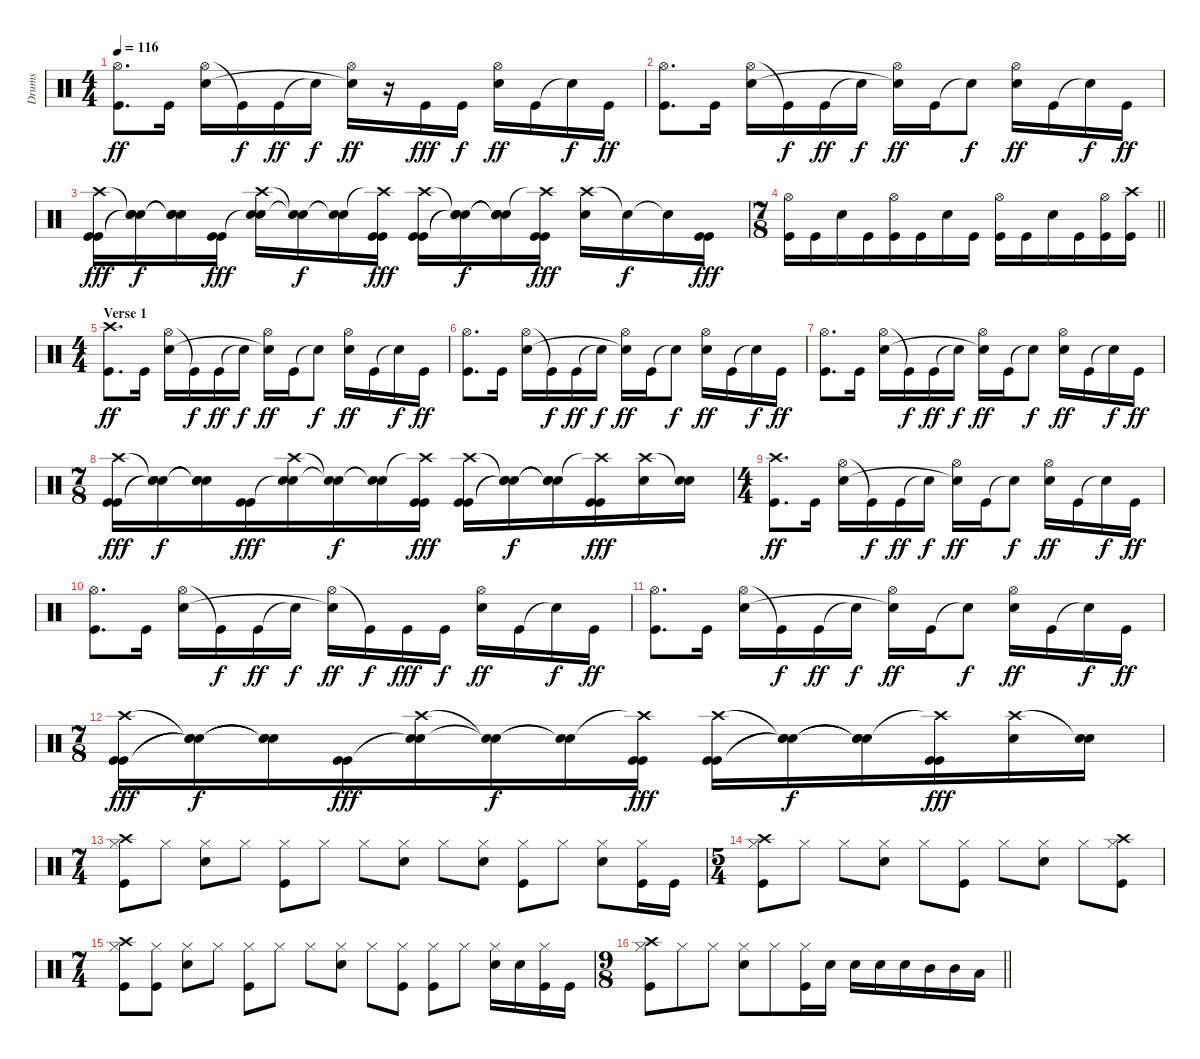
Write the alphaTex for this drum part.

\track ("Drums" "Drums") {instrument percussion}
\staff {score}
\articulation defaults
\ts (4 4)
\tempo 116
\clef neutral
\ks c
("Hi-Hat (open)" "Kick (hit)").8{d dy ff} "Kick (hit)".16 ("Hi-Hat (open)" "Electric Snare (hit)").16 "Kick (hit)"{t}.16{dy f} "Kick (hit)".16{dy ff} "Snare (hit)"{t}.16{dy f} ("Hi-Hat (open)" "Snare (hit)"{t}).16{dy ff} r.16 "Kick (hit)".16{dy fff} "Kick (hit)".16{dy f} ("Hi-Hat (open)" "Electric Snare (hit)").16{dy ff} "Kick (hit)".16 "Snare (hit)"{t}.16{dy f} "Kick (hit)".16{dy ff} |
("Hi-Hat (open)" "Kick (hit)").8{d} "Kick (hit)".16 ("Hi-Hat (open)" "Electric Snare (hit)").16 "Kick (hit)"{t}.16{dy f} "Kick (hit)".16{dy ff} "Snare (hit)"{t}.16{dy f} ("Hi-Hat (open)" "Snare (hit)"{t}).16{dy ff} "Kick (hit)".16 "Snare (hit)"{t}.8{dy f} ("Hi-Hat (open)" "Electric Snare (hit)").16{dy ff} "Kick (hit)".16 "Snare (hit)"{t}.16{dy f} "Kick (hit)".16{dy ff} |
("Crash high (hit)" "Kick (hit)" "Kick (hit)").16{dy fff} ("Snare (hit)"{t} "Snare (hit)"{t} "Snare (hit)"{t}).16{dy f} ("Snare (hit)"{t} "Snare (hit)"{t} "Snare (hit)"{t}).16 ("Kick (hit)" "Kick (hit)").16{dy fff} ("Crash high (hit)" "Snare (hit)"{t} "Electric Snare (hit)").16 ("Snare (hit)"{t} "Snare (hit)"{t}).16{dy f} ("Snare (hit)"{t} "Snare (hit)"{t}).16 ("Crash high (hit)"{t} "Kick (hit)" "Kick (hit)").16{dy fff} ("Crash high (hit)" "Kick (hit)" "Kick (hit)").16 ("Snare (hit)"{t} "Snare (hit)"{t} "Snare (hit)"{t}).16{dy f} ("Snare (hit)"{t} "Snare (hit)"{t} "Snare (hit)"{t}).16 ("Crash high (hit)"{t} "Kick (hit)" "Kick (hit)").16{dy fff} ("Crash high (hit)" "Electric Snare (hit)").16 "Snare (hit)"{t}.16{dy f} "Snare (hit)"{t}.16 ("Kick (hit)" "Kick (hit)").16{dy fff} |
\ts (7 8)
\barLineRight lightlight
("Hi-Hat (open)" "Kick (hit)").16 "Kick (hit)".16 "Electric Snare (hit)".16 "Kick (hit)".16 ("Hi-Hat (open)" "Kick (hit)").16 "Kick (hit)".16 "Electric Snare (hit)".16 "Kick (hit)".16 ("Hi-Hat (open)" "Kick (hit)").16 "Kick (hit)".16 "Electric Snare (hit)".16 "Kick (hit)".16 ("Hi-Hat (open)" "Kick (hit)").16 ("Crash high (hit)" "Kick (hit)").16 |
\ts (4 4)
\section ("" "Verse 1")
("Crash high (hit)" "Kick (hit)").8{d dy ff} "Kick (hit)".16 ("Hi-Hat (open)" "Electric Snare (hit)").16 "Kick (hit)"{t}.16{dy f} "Kick (hit)".16{dy ff} "Snare (hit)"{t}.16{dy f} ("Hi-Hat (open)" "Snare (hit)"{t}).16{dy ff} "Kick (hit)".16 "Snare (hit)"{t}.8{dy f} ("Hi-Hat (open)" "Electric Snare (hit)").16{dy ff} "Kick (hit)".16 "Snare (hit)"{t}.16{dy f} "Kick (hit)".16{dy ff} |
("Hi-Hat (open)" "Kick (hit)").8{d} "Kick (hit)".16 ("Hi-Hat (open)" "Electric Snare (hit)").16 "Kick (hit)"{t}.16{dy f} "Kick (hit)".16{dy ff} "Snare (hit)"{t}.16{dy f} ("Hi-Hat (open)" "Snare (hit)"{t}).16{dy ff} "Kick (hit)".16 "Snare (hit)"{t}.8{dy f} ("Hi-Hat (open)" "Electric Snare (hit)").16{dy ff} "Kick (hit)".16 "Snare (hit)"{t}.16{dy f} "Kick (hit)".16{dy ff} |
("Hi-Hat (open)" "Kick (hit)").8{d} "Kick (hit)".16 ("Hi-Hat (open)" "Electric Snare (hit)").16 "Kick (hit)"{t}.16{dy f} "Kick (hit)".16{dy ff} "Snare (hit)"{t}.16{dy f} ("Hi-Hat (open)" "Snare (hit)"{t}).16{dy ff} "Kick (hit)".16 "Snare (hit)"{t}.8{dy f} ("Hi-Hat (open)" "Electric Snare (hit)").16{dy ff} "Kick (hit)".16 "Snare (hit)"{t}.16{dy f} "Kick (hit)".16{dy ff} |
\ts (7 8)
("Crash high (hit)" "Kick (hit)" "Kick (hit)").16{dy fff} ("Snare (hit)"{t} "Snare (hit)"{t} "Snare (hit)"{t}).16{dy f} ("Snare (hit)"{t} "Snare (hit)"{t} "Snare (hit)"{t}).16 ("Kick (hit)" "Kick (hit)").16{dy fff} ("Crash high (hit)" "Snare (hit)"{t} "Electric Snare (hit)").16 ("Snare (hit)"{t} "Snare (hit)"{t}).16{dy f} ("Snare (hit)"{t} "Snare (hit)"{t}).16 ("Crash high (hit)"{t} "Kick (hit)" "Kick (hit)").16{dy fff} ("Crash high (hit)" "Kick (hit)" "Kick (hit)").16 ("Snare (hit)"{t} "Snare (hit)"{t} "Snare (hit)"{t}).16{dy f} ("Snare (hit)"{t} "Snare (hit)"{t} "Snare (hit)"{t}).16 ("Crash high (hit)"{t} "Kick (hit)" "Kick (hit)").16{dy fff} ("Crash high (hit)" "Electric Snare (hit)").16 ("Snare (hit)"{t} "Electric Snare (hit)").16 |
\ts (4 4)
("Crash high (hit)" "Kick (hit)").8{d dy ff} "Kick (hit)".16 ("Hi-Hat (open)" "Electric Snare (hit)").16 "Kick (hit)"{t}.16{dy f} "Kick (hit)".16{dy ff} "Snare (hit)"{t}.16{dy f} ("Hi-Hat (open)" "Snare (hit)"{t}).16{dy ff} "Kick (hit)".16 "Snare (hit)"{t}.8{dy f} ("Hi-Hat (open)" "Electric Snare (hit)").16{dy ff} "Kick (hit)".16 "Snare (hit)"{t}.16{dy f} "Kick (hit)".16{dy ff} |
("Hi-Hat (open)" "Kick (hit)").8{d} "Kick (hit)".16 ("Hi-Hat (open)" "Electric Snare (hit)").16 "Kick (hit)"{t}.16{dy f} "Kick (hit)".16{dy ff} "Snare (hit)"{t}.16{dy f} ("Hi-Hat (open)" "Snare (hit)"{t}).16{dy ff} "Kick (hit)"{t}.16{dy f} "Kick (hit)".16{dy fff} "Kick (hit)".16{dy f} ("Hi-Hat (open)" "Electric Snare (hit)").16{dy ff} "Kick (hit)".16 "Snare (hit)"{t}.16{dy f} "Kick (hit)".16{dy ff} |
("Hi-Hat (open)" "Kick (hit)").8{d} "Kick (hit)".16 ("Hi-Hat (open)" "Electric Snare (hit)").16 "Kick (hit)"{t}.16{dy f} "Kick (hit)".16{dy ff} "Snare (hit)"{t}.16{dy f} ("Hi-Hat (open)" "Snare (hit)"{t}).16{dy ff} "Kick (hit)".16 "Snare (hit)"{t}.8{dy f} ("Hi-Hat (open)" "Electric Snare (hit)").16{dy ff} "Kick (hit)".16 "Snare (hit)"{t}.16{dy f} "Kick (hit)".16{dy ff} |
\ts (7 8)
("Crash high (hit)" "Kick (hit)" "Kick (hit)").16{dy fff} ("Snare (hit)"{t} "Snare (hit)"{t} "Snare (hit)"{t}).16{dy f} ("Snare (hit)"{t} "Snare (hit)"{t} "Snare (hit)"{t}).16 ("Kick (hit)" "Kick (hit)").16{dy fff} ("Crash high (hit)" "Snare (hit)"{t} "Electric Snare (hit)").16 ("Snare (hit)"{t} "Snare (hit)"{t}).16{dy f} ("Snare (hit)"{t} "Snare (hit)"{t}).16 ("Crash high (hit)"{t} "Kick (hit)" "Kick (hit)").16{dy fff} ("Crash high (hit)" "Kick (hit)" "Kick (hit)").16 ("Snare (hit)"{t} "Snare (hit)"{t} "Snare (hit)"{t}).16{dy f} ("Snare (hit)"{t} "Snare (hit)"{t} "Snare (hit)"{t}).16 ("Crash high (hit)"{t} "Kick (hit)" "Kick (hit)").16{dy fff} ("Crash high (hit)" "Electric Snare (hit)").16 ("Snare (hit)"{t} "Electric Snare (hit)").16 |
\ts (7 4)
("Crash high (hit)" "Hi-Hat (closed)" "Kick (hit)").8 "Hi-Hat (closed)".8 ("Hi-Hat (closed)" "Electric Snare (hit)").8 "Hi-Hat (closed)".8 ("Hi-Hat (closed)" "Kick (hit)").8 "Hi-Hat (closed)".8 "Hi-Hat (closed)".8 ("Hi-Hat (closed)" "Electric Snare (hit)").8 "Hi-Hat (closed)".8 ("Hi-Hat (closed)" "Electric Snare (hit)").8 ("Hi-Hat (closed)" "Kick (hit)").8 "Hi-Hat (closed)".8 ("Hi-Hat (closed)" "Electric Snare (hit)").8 ("Hi-Hat (closed)" "Kick (hit)").16 "Kick (hit)".16 |
\ts (5 4)
("Crash high (hit)" "Hi-Hat (closed)" "Kick (hit)").8 "Hi-Hat (closed)".8 "Hi-Hat (closed)".8 ("Hi-Hat (closed)" "Electric Snare (hit)").8 "Hi-Hat (closed)".8 ("Hi-Hat (closed)" "Kick (hit)").8 "Hi-Hat (closed)".8 ("Hi-Hat (closed)" "Electric Snare (hit)").8 "Hi-Hat (closed)".8 ("Crash high (hit)" "Hi-Hat (closed)" "Kick (hit)").8 |
\ts (7 4)
("Crash high (hit)" "Hi-Hat (closed)" "Kick (hit)").8 ("Hi-Hat (closed)" "Kick (hit)").8 ("Hi-Hat (closed)" "Electric Snare (hit)").8 "Hi-Hat (closed)".8 ("Hi-Hat (closed)" "Kick (hit)").8 "Hi-Hat (closed)".8 "Hi-Hat (closed)".8 ("Hi-Hat (closed)" "Electric Snare (hit)").8 "Hi-Hat (closed)".8 ("Hi-Hat (closed)" "Kick (hit)").8 ("Hi-Hat (closed)" "Kick (hit)").8 "Hi-Hat (closed)".8 ("Hi-Hat (closed)" "Electric Snare (hit)").16 "Electric Snare (hit)".16 ("Hi-Hat (closed)" "Kick (hit)").16 "Kick (hit)".16 |
\ts (9 8)
\barLineRight lightlight
("Crash high (hit)" "Hi-Hat (closed)" "Kick (hit)").8 "Hi-Hat (closed)".8 "Hi-Hat (closed)".8 ("Hi-Hat (closed)" "Electric Snare (hit)").8 "Hi-Hat (closed)".8 ("Hi-Hat (closed)" "Kick (hit)").16 "Electric Snare (hit)".16 "Electric Snare (hit)".16 "Electric Snare (hit)".16 "Electric Snare (hit)".16 "Mid Tom (hit)".16 "Mid Tom (hit)".16 "Low Tom (hit)".16
